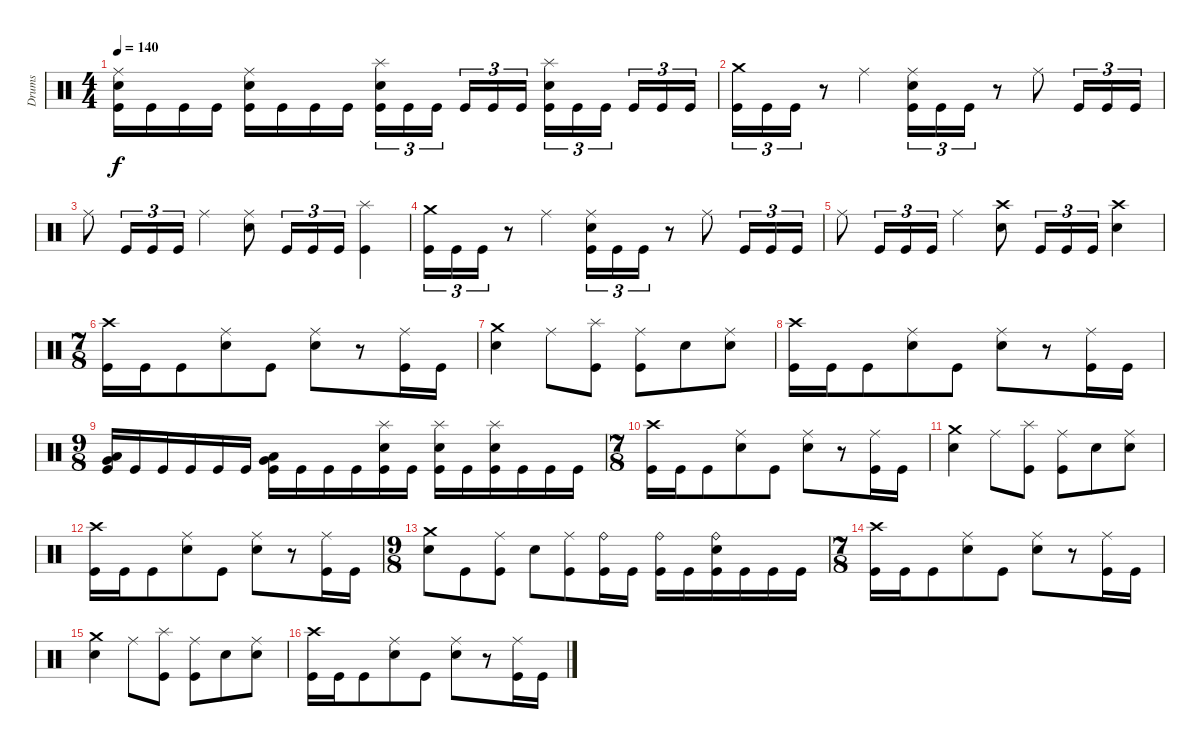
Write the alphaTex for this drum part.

\track ("Drums" "Drums") {instrument percussion}
\staff {score}
\articulation defaults
\ts (4 4)
\tempo 140
\clef neutral
\ks c
("Ride (middle)" "Electric Snare (hit)" "Kick (hit)").16{dy f} "Kick (hit)".16 "Kick (hit)".16 "Kick (hit)".16 ("Ride (middle)" "Electric Snare (hit)" "Kick (hit)").16 "Kick (hit)".16 "Kick (hit)".16 "Kick (hit)".16 ("Splash (hit)" "Electric Snare (hit)" "Kick (hit)").16{tu (3 2)} "Kick (hit)".16{tu (3 2)} "Kick (hit)".16{tu (3 2)} "Kick (hit)".16{tu (3 2)} "Kick (hit)".16{tu (3 2)} "Kick (hit)".16{tu (3 2)} ("Splash (hit)" "Electric Snare (hit)" "Kick (hit)").16{tu (3 2)} "Kick (hit)".16{tu (3 2)} "Kick (hit)".16{tu (3 2)} "Kick (hit)".16{tu (3 2)} "Kick (hit)".16{tu (3 2)} "Kick (hit)".16{tu (3 2)} |
("Crash medium (hit)" "Kick (hit)").16{tu (3 2)} "Kick (hit)".16{tu (3 2)} "Kick (hit)".16{tu (3 2)} r.8 "Ride (middle)".4 ("Ride (middle)" "Electric Snare (hit)" "Kick (hit)").16{tu (3 2)} "Kick (hit)".16{tu (3 2)} "Kick (hit)".16{tu (3 2)} r.8 "Ride (middle)".8 "Kick (hit)".16{tu (3 2)} "Kick (hit)".16{tu (3 2)} "Kick (hit)".16{tu (3 2)} |
"Ride (middle)".8 "Kick (hit)".16{tu (3 2)} "Kick (hit)".16{tu (3 2)} "Kick (hit)".16{tu (3 2)} "Ride (middle)".4 ("Ride (middle)" "Electric Snare (hit)").8 "Kick (hit)".16{tu (3 2)} "Kick (hit)".16{tu (3 2)} "Kick (hit)".16{tu (3 2)} ("Splash (hit)" "Kick (hit)").4 |
("Crash medium (hit)" "Kick (hit)").16{tu (3 2)} "Kick (hit)".16{tu (3 2)} "Kick (hit)".16{tu (3 2)} r.8 "Ride (middle)".4 ("Ride (middle)" "Electric Snare (hit)" "Kick (hit)").16{tu (3 2)} "Kick (hit)".16{tu (3 2)} "Kick (hit)".16{tu (3 2)} r.8 "Ride (middle)".8 "Kick (hit)".16{tu (3 2)} "Kick (hit)".16{tu (3 2)} "Kick (hit)".16{tu (3 2)} |
"Ride (middle)".8 "Kick (hit)".16{tu (3 2)} "Kick (hit)".16{tu (3 2)} "Kick (hit)".16{tu (3 2)} "Ride (middle)".4 ("Crash high (hit)" "Electric Snare (hit)").8 "Kick (hit)".16{tu (3 2)} "Kick (hit)".16{tu (3 2)} "Kick (hit)".16{tu (3 2)} ("Crash high (hit)" "Electric Snare (hit)").4 |
\ts (7 8)
("Crash high (hit)" "Kick (hit)").16 "Kick (hit)".16 "Kick (hit)".8 ("Ride (middle)" "Electric Snare (hit)").8 "Kick (hit)".8 ("Ride (middle)" "Electric Snare (hit)").8 r.8 ("Ride (middle)" "Kick (hit)").16 "Kick (hit)".16 |
("Crash medium (hit)" "Electric Snare (hit)").4 "Ride (middle)".8 ("Splash (hit)" "Kick (hit)").8 ("Ride (middle)" "Kick (hit)").8 "Electric Snare (hit)".8 ("Ride (middle)" "Electric Snare (hit)").8 |
("Crash high (hit)" "Kick (hit)").16 "Kick (hit)".16 "Kick (hit)".8 ("Ride (middle)" "Electric Snare (hit)").8 "Kick (hit)".8 ("Ride (middle)" "Electric Snare (hit)").8 r.8 ("Ride (middle)" "Kick (hit)").16 "Kick (hit)".16 |
\ts (9 8)
("Low Tom (hit)" "Very Low Tom (hit)" "Kick (hit)").16 "Kick (hit)".16 "Kick (hit)".16 "Kick (hit)".16 "Kick (hit)".16 "Kick (hit)".16 ("Low Tom (hit)" "Very Low Tom (hit)" "Kick (hit)").16 "Kick (hit)".16 "Kick (hit)".16 "Kick (hit)".16 ("Splash (hit)" "Electric Snare (hit)" "Kick (hit)").16 "Kick (hit)".16 ("Splash (hit)" "Electric Snare (hit)" "Kick (hit)").16 "Kick (hit)".16 ("Splash (hit)" "Electric Snare (hit)" "Kick (hit)").16 "Kick (hit)".16 "Kick (hit)".16 "Kick (hit)".16 |
\ts (7 8)
("Crash high (hit)" "Kick (hit)").16 "Kick (hit)".16 "Kick (hit)".8 ("Ride (middle)" "Electric Snare (hit)").8 "Kick (hit)".8 ("Ride (middle)" "Electric Snare (hit)").8 r.8 ("Ride (middle)" "Kick (hit)").16 "Kick (hit)".16 |
("Crash medium (hit)" "Electric Snare (hit)").4 "Ride (middle)".8 ("Splash (hit)" "Kick (hit)").8 ("Ride (middle)" "Kick (hit)").8 "Electric Snare (hit)".8 ("Ride (middle)" "Electric Snare (hit)").8 |
("Crash high (hit)" "Kick (hit)").16 "Kick (hit)".16 "Kick (hit)".8 ("Ride (middle)" "Electric Snare (hit)").8 "Kick (hit)".8 ("Ride (middle)" "Electric Snare (hit)").8 r.8 ("Ride (middle)" "Kick (hit)").16 "Kick (hit)".16 |
\ts (9 8)
("Crash medium (hit)" "Electric Snare (hit)").8 "Kick (hit)".8 ("Ride (middle)" "Kick (hit)").8 "Electric Snare (hit)".8 ("Ride (middle)" "Kick (hit)").8 ("Ride (bell)" "Kick (hit)").16 "Kick (hit)".16 ("Ride (bell)" "Kick (hit)").16 "Kick (hit)".16 ("Ride (bell)" "Electric Snare (hit)" "Kick (hit)").16 "Kick (hit)".16 "Kick (hit)".16 "Kick (hit)".16 |
\ts (7 8)
("Crash high (hit)" "Kick (hit)").16 "Kick (hit)".16 "Kick (hit)".8 ("Ride (middle)" "Electric Snare (hit)").8 "Kick (hit)".8 ("Ride (middle)" "Electric Snare (hit)").8 r.8 ("Ride (middle)" "Kick (hit)").16 "Kick (hit)".16 |
("Crash medium (hit)" "Electric Snare (hit)").4 "Ride (middle)".8 ("Splash (hit)" "Kick (hit)").8 ("Ride (middle)" "Kick (hit)").8 "Electric Snare (hit)".8 ("Ride (middle)" "Electric Snare (hit)").8 |
("Crash high (hit)" "Kick (hit)").16 "Kick (hit)".16 "Kick (hit)".8 ("Ride (middle)" "Electric Snare (hit)").8 "Kick (hit)".8 ("Ride (middle)" "Electric Snare (hit)").8 r.8 ("Ride (middle)" "Kick (hit)").16 "Kick (hit)".16
